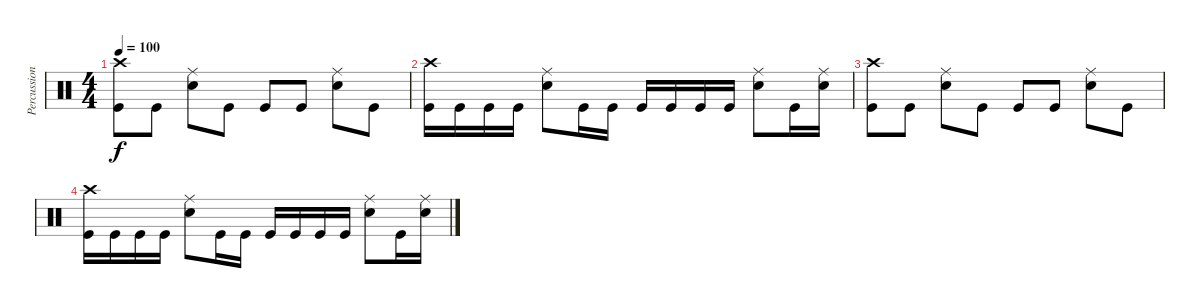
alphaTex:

\track ("Percussion" "Percussion") {instrument percussion}
\staff {score}
\articulation defaults
\ts (4 4)
\tempo 100
\clef neutral
\ks c
("Crash high (hit)" "Kick (hit)").8{dy f volume 0} "Kick (hit)".8 ("Ride (middle)" "Electric Snare (hit)").8 "Kick (hit)".8 "Kick (hit)".8 "Kick (hit)".8 ("Ride (middle)" "Electric Snare (hit)").8 "Kick (hit)".8 |
("Crash high (hit)" "Kick (hit)").16 "Kick (hit)".16 "Kick (hit)".16 "Kick (hit)".16 ("Ride (middle)" "Electric Snare (hit)").8 "Kick (hit)".16 "Kick (hit)".16 "Kick (hit)".16 "Kick (hit)".16 "Kick (hit)".16 "Kick (hit)".16 ("Ride (middle)" "Electric Snare (hit)").8 "Kick (hit)".16 ("Ride (middle)" "Electric Snare (hit)").16 |
("Crash high (hit)" "Kick (hit)").8 "Kick (hit)".8 ("Ride (middle)" "Electric Snare (hit)").8 "Kick (hit)".8 "Kick (hit)".8 "Kick (hit)".8 ("Ride (middle)" "Electric Snare (hit)").8 "Kick (hit)".8 |
("Crash high (hit)" "Kick (hit)").16 "Kick (hit)".16 "Kick (hit)".16 "Kick (hit)".16 ("Ride (middle)" "Electric Snare (hit)").8 "Kick (hit)".16 "Kick (hit)".16 "Kick (hit)".16 "Kick (hit)".16 "Kick (hit)".16 "Kick (hit)".16 ("Ride (middle)" "Electric Snare (hit)").8 "Kick (hit)".16 ("Ride (middle)" "Electric Snare (hit)").16
